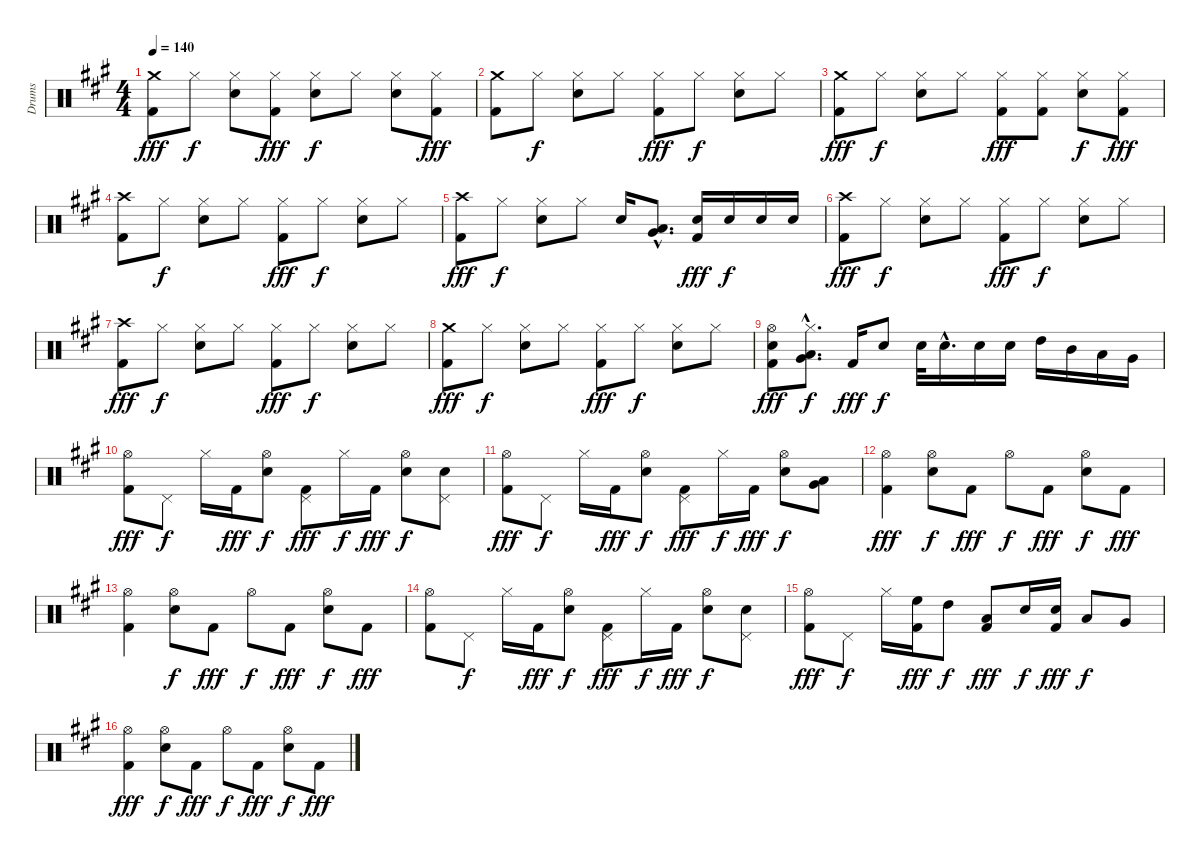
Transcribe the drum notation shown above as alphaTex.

\track ("Drums" "Drums") {instrument percussion}
\staff {score}
\articulation defaults
\ts (4 4)
\tempo 140
\clef neutral
\ks a
("Crash medium (hit)" "Kick (hit) 2").8{dy fff} "Hi-Hat (closed)".8{dy f} ("Hi-Hat (closed)" "Electric Snare (hit)").8 ("Hi-Hat (closed)" "Kick (hit) 2").8{dy fff} ("Hi-Hat (closed)" "Electric Snare (hit)").8{dy f} "Hi-Hat (closed)".8 ("Hi-Hat (closed)" "Electric Snare (hit)").8 ("Hi-Hat (closed)" "Kick (hit) 2").8{dy fff} |
("Crash medium (hit)" "Kick (hit) 2").8 "Hi-Hat (closed)".8{dy f} ("Hi-Hat (closed)" "Electric Snare (hit)").8 "Hi-Hat (closed)".8 ("Hi-Hat (closed)" "Kick (hit) 2").8{dy fff} "Hi-Hat (closed)".8{dy f} ("Hi-Hat (closed)" "Electric Snare (hit)").8 "Hi-Hat (closed)".8 |
("Crash medium (hit)" "Kick (hit) 2").8{dy fff} "Hi-Hat (closed)".8{dy f} ("Hi-Hat (closed)" "Electric Snare (hit)").8 "Hi-Hat (closed)".8 ("Hi-Hat (closed)" "Kick (hit) 2").8{dy fff} ("Hi-Hat (closed)" "Kick (hit) 2").8 ("Hi-Hat (closed)" "Electric Snare (hit)").8{dy f} ("Hi-Hat (closed)" "Kick (hit) 2").8{dy fff} |
("Crash high (hit)" "Kick (hit) 2").8 "Hi-Hat (closed)".8{dy f} ("Hi-Hat (closed)" "Electric Snare (hit)").8 "Hi-Hat (closed)".8 ("Hi-Hat (closed)" "Kick (hit) 2").8{dy fff} "Hi-Hat (closed)".8{dy f} ("Hi-Hat (closed)" "Electric Snare (hit)").8 "Hi-Hat (closed)".8 |
("Crash high (hit)" "Kick (hit) 2").8{dy fff} "Hi-Hat (closed)".8{dy f} ("Hi-Hat (closed)" "Electric Snare (hit)").8 "Hi-Hat (closed)".8 "Electric Snare (hit)".16 ("Low Tom (hit)"{hac} "Very Low Tom (hit)"{hac}).8{d} ("Electric Snare (hit)" "Kick (hit) 2").16{dy fff} "Electric Snare (hit)".16{dy f} "Electric Snare (hit)".16 "Electric Snare (hit)".16 |
("Crash high (hit)" "Kick (hit) 2").8{dy fff} "Hi-Hat (closed)".8{dy f} ("Hi-Hat (closed)" "Electric Snare (hit)").8 "Hi-Hat (closed)".8 ("Hi-Hat (closed)" "Kick (hit) 2").8{dy fff} "Hi-Hat (closed)".8{dy f} ("Hi-Hat (closed)" "Electric Snare (hit)").8 "Hi-Hat (closed)".8 |
("Crash high (hit)" "Kick (hit) 2").8{dy fff} "Hi-Hat (closed)".8{dy f} ("Hi-Hat (closed)" "Electric Snare (hit)").8 "Hi-Hat (closed)".8 ("Hi-Hat (closed)" "Kick (hit) 2").8{dy fff} "Hi-Hat (closed)".8{dy f} ("Hi-Hat (closed)" "Electric Snare (hit)").8 "Hi-Hat (closed)".8 |
("Crash medium (hit)" "Kick (hit) 2").8{dy fff} "Hi-Hat (closed)".8{dy f} ("Hi-Hat (closed)" "Electric Snare (hit)").8 "Hi-Hat (closed)".8 ("Hi-Hat (closed)" "Kick (hit) 2").8{dy fff} "Hi-Hat (closed)".8{dy f} ("Hi-Hat (closed)" "Electric Snare (hit)").8 "Hi-Hat (closed)".8 |
("Hi-Hat (open)" "Electric Snare (hit)" "Kick (hit) 2").8{dy fff} ("Hi-Hat (closed)"{hac} "Low Tom (hit)"{hac} "Very Low Tom (hit)"{hac}).8{d dy f} "Kick (hit) 2".16{dy fff} "Electric Snare (hit)".8{dy f} "Electric Snare (hit)".32 "Electric Snare (hit)"{hac}.16{d} "Electric Snare (hit)".16 "Electric Snare (hit)".16 "High Tom (hit)".16 "Mid Tom (hit)".16 "Low Tom (hit)".16 "Very Low Tom (hit)".16 |
("Hi-Hat (open)" "Kick (hit) 2").8{dy fff} "Pedal Hi-Hat (hit)".8{dy f} "Hi-Hat (closed)".16 "Kick (hit) 2".16{dy fff} ("Hi-Hat (open)" "Electric Snare (hit)").8{dy f} ("Pedal Hi-Hat (hit)" "Kick (hit) 2").8{dy fff} "Hi-Hat (closed)".16{dy f} "Kick (hit) 2".16{dy fff} ("Hi-Hat (open)" "Electric Snare (hit)").8{dy f} ("Pedal Hi-Hat (hit)" "Electric Snare (hit)").8 |
("Hi-Hat (open)" "Kick (hit) 2").8{dy fff} "Pedal Hi-Hat (hit)".8{dy f} "Hi-Hat (closed)".16 "Kick (hit) 2".16{dy fff} ("Hi-Hat (open)" "Electric Snare (hit)").8{dy f} ("Pedal Hi-Hat (hit)" "Kick (hit) 2").8{dy fff} "Hi-Hat (closed)".16{dy f} "Kick (hit) 2".16{dy fff} ("Hi-Hat (open)" "Electric Snare (hit)").8{dy f} ("Low Tom (hit)" "Very Low Tom (hit)").8 |
("Hi-Hat (open)" "Kick (hit) 2").4{dy fff} ("Hi-Hat (open)" "Electric Snare (hit)").8{dy f} "Kick (hit) 2".8{dy fff} "Hi-Hat (open)".8{dy f} "Kick (hit) 2".8{dy fff} ("Hi-Hat (open)" "Electric Snare (hit)").8{dy f} "Kick (hit) 2".8{dy fff} |
("Hi-Hat (open)" "Kick (hit) 2").4 ("Hi-Hat (open)" "Electric Snare (hit)").8{dy f} "Kick (hit) 2".8{dy fff} "Hi-Hat (open)".8{dy f} "Kick (hit) 2".8{dy fff} ("Hi-Hat (open)" "Electric Snare (hit)").8{dy f} "Kick (hit) 2".8{dy fff} |
("Hi-Hat (open)" "Kick (hit) 2").8 "Pedal Hi-Hat (hit)".8{dy f} "Hi-Hat (closed)".16 "Kick (hit) 2".16{dy fff} ("Hi-Hat (open)" "Electric Snare (hit)").8{dy f} ("Pedal Hi-Hat (hit)" "Kick (hit) 2").8{dy fff} "Hi-Hat (closed)".16{dy f} "Kick (hit) 2".16{dy fff} ("Hi-Hat (open)" "Electric Snare (hit)").8{dy f} ("Pedal Hi-Hat (hit)" "Electric Snare (hit)").8 |
("Hi-Hat (open)" "Kick (hit) 2").8{dy fff} "Pedal Hi-Hat (hit)".8{dy f} "Hi-Hat (closed)".16 ("High Floor Tom (hit)" "Kick (hit) 2").16{dy fff} "High Tom (hit)".8{dy f} ("Low Tom (hit)" "Kick (hit) 2").8{dy fff} "Electric Snare (hit)".16{dy f} ("Electric Snare (hit)" "Kick (hit) 2").16{dy fff} "Low Tom (hit)".8{dy f} "Very Low Tom (hit)".8 |
("Hi-Hat (open)" "Kick (hit) 2").4{dy fff} ("Hi-Hat (open)" "Electric Snare (hit)").8{dy f} "Kick (hit) 2".8{dy fff} "Hi-Hat (open)".8{dy f} "Kick (hit) 2".8{dy fff} ("Hi-Hat (open)" "Electric Snare (hit)").8{dy f} "Kick (hit) 2".8{dy fff}
